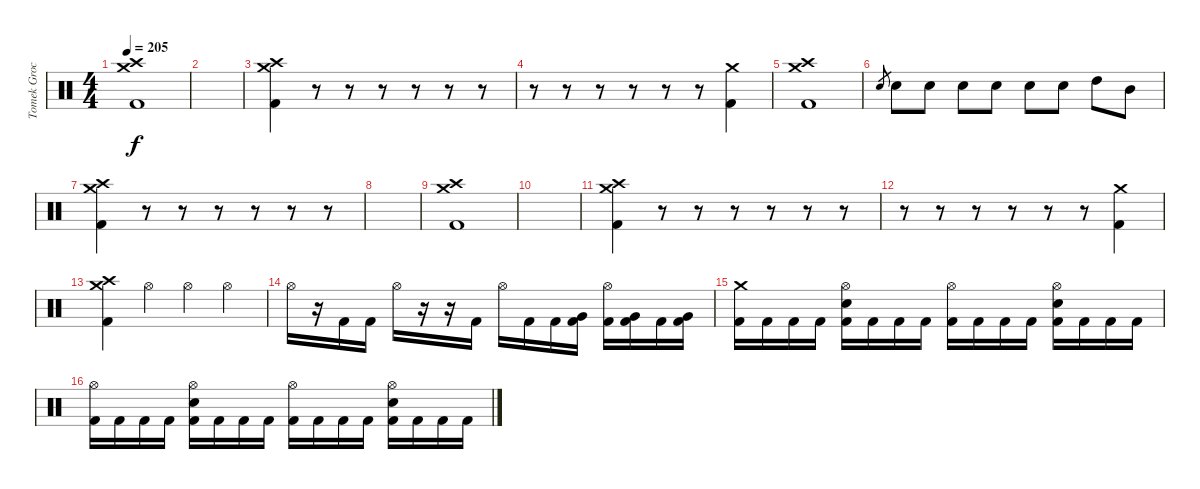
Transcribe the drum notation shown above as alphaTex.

\track ("Tomek Grochowski" "Tomek Groc") {instrument percussion}
\staff {score}
\articulation defaults
\ts (4 4)
\tempo 205
\clef neutral
\ks c
("Crash high (hit)" "Crash medium (hit)" "Kick (hit) 2").1{dy f} |
|
("Crash medium (hit)" "Crash high (hit)" "Kick (hit) 2").4 r.8 r.8 r.8 r.8 r.8 r.8 |
r.8 r.8 r.8 r.8 r.8 r.8 ("Crash medium (hit)" "Kick (hit) 2").4 |
("Crash high (hit)" "Crash medium (hit)" "Kick (hit) 2").1 |
"Electric Snare (hit)".8{gr} "Electric Snare (hit)".8 "Electric Snare (hit)".8 "Electric Snare (hit)".8 "Electric Snare (hit)".8 "Electric Snare (hit)".8 "Electric Snare (hit)".8 "High Tom (hit)".8 "Mid Tom (hit)".8 |
("Crash medium (hit)" "Crash high (hit)" "Kick (hit) 2").4 r.8 r.8 r.8 r.8 r.8 r.8 |
|
("Crash high (hit)" "Crash medium (hit)" "Kick (hit) 2").1 |
|
("Crash medium (hit)" "Crash high (hit)" "Kick (hit) 2").4 r.8 r.8 r.8 r.8 r.8 r.8 |
r.8 r.8 r.8 r.8 r.8 r.8 ("Crash medium (hit)" "Kick (hit) 2").4 |
("Crash high (hit)" "Crash medium (hit)" "Kick (hit) 2").4 "Hi-Hat (open)".4 "Hi-Hat (open)".4 "Hi-Hat (open)".4 |
"Hi-Hat (open)".16 r.16 "Kick (hit) 2".16 "Kick (hit) 2".16 "Hi-Hat (open)".16 r.16 r.16 "Kick (hit) 2".16 "Hi-Hat (open)".16 "Kick (hit) 2".16 "Kick (hit) 2".16 ("Very Low Tom (hit)" "Kick (hit) 2").16 ("Hi-Hat (open)" "Kick (hit) 2").16 ("Very Low Tom (hit)" "Kick (hit) 2").16 "Kick (hit) 2".16 ("Very Low Tom (hit)" "Kick (hit) 2").16 |
("Crash medium (hit)" "Kick (hit) 2").16 "Kick (hit) 2".16 "Kick (hit) 2".16 "Kick (hit) 2".16 ("Hi-Hat (open)" "Electric Snare (hit)" "Kick (hit) 2").16 "Kick (hit) 2".16 "Kick (hit) 2".16 "Kick (hit) 2".16 ("Hi-Hat (open)" "Kick (hit) 2").16 "Kick (hit) 2".16 "Kick (hit) 2".16 "Kick (hit) 2".16 ("Hi-Hat (open)" "Electric Snare (hit)" "Kick (hit) 2").16 "Kick (hit) 2".16 "Kick (hit) 2".16 "Kick (hit) 2".16 |
("Hi-Hat (open)" "Kick (hit) 2").16 "Kick (hit) 2".16 "Kick (hit) 2".16 "Kick (hit) 2".16 ("Hi-Hat (open)" "Electric Snare (hit)" "Kick (hit) 2").16 "Kick (hit) 2".16 "Kick (hit) 2".16 "Kick (hit) 2".16 ("Hi-Hat (open)" "Kick (hit) 2").16 "Kick (hit) 2".16 "Kick (hit) 2".16 "Kick (hit) 2".16 ("Hi-Hat (open)" "Electric Snare (hit)" "Kick (hit) 2").16 "Kick (hit) 2".16 "Kick (hit) 2".16 "Kick (hit) 2".16
